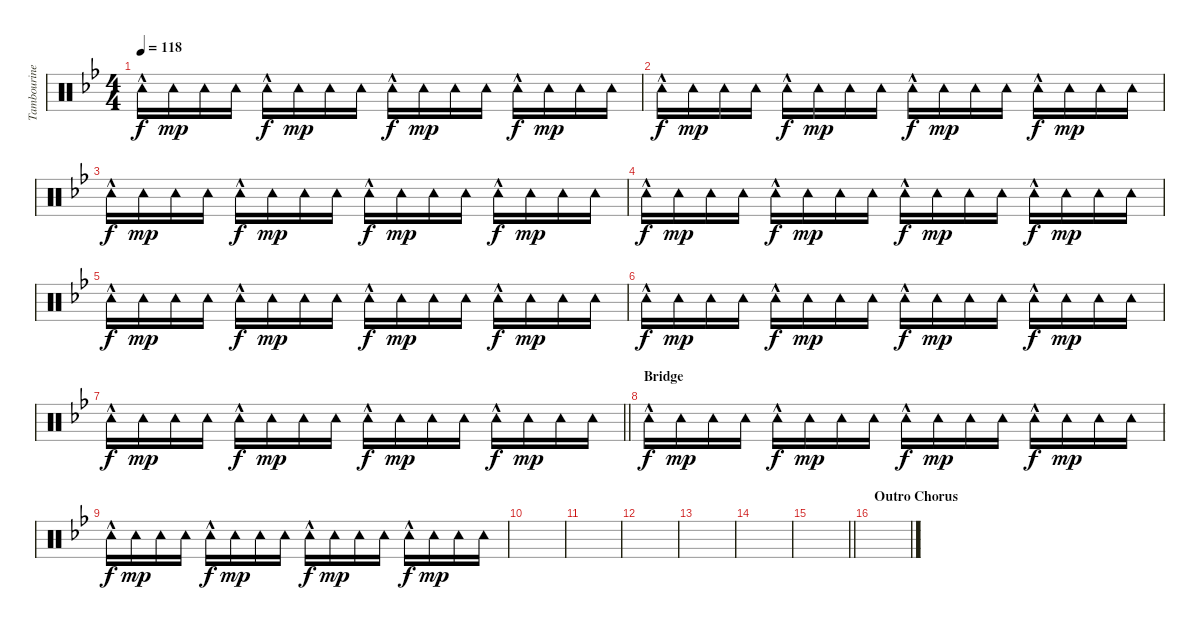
\track ("Tambourine" "Tambourine") {instrument percussion}
\staff {score}
\articulation defaults
\ts (4 4)
\tempo 118
\clef neutral
\ks bb "Tambourine (hit)"{hac}.16{dy f} "Tambourine (hit)".16{dy mp} "Tambourine (hit)".16 "Tambourine (hit)".16 "Tambourine (hit)"{hac}.16{dy f} "Tambourine (hit)".16{dy mp} "Tambourine (hit)".16 "Tambourine (hit)".16 "Tambourine (hit)"{hac}.16{dy f} "Tambourine (hit)".16{dy mp} "Tambourine (hit)".16 "Tambourine (hit)".16 "Tambourine (hit)"{hac}.16{dy f} "Tambourine (hit)".16{dy mp} "Tambourine (hit)".16 "Tambourine (hit)".16
|
"Tambourine (hit)"{hac}.16{dy f} "Tambourine (hit)".16{dy mp} "Tambourine (hit)".16 "Tambourine (hit)".16 "Tambourine (hit)"{hac}.16{dy f} "Tambourine (hit)".16{dy mp} "Tambourine (hit)".16 "Tambourine (hit)".16 "Tambourine (hit)"{hac}.16{dy f} "Tambourine (hit)".16{dy mp} "Tambourine (hit)".16 "Tambourine (hit)".16 "Tambourine (hit)"{hac}.16{dy f} "Tambourine (hit)".16{dy mp} "Tambourine (hit)".16 "Tambourine (hit)".16 |
"Tambourine (hit)"{hac}.16{dy f} "Tambourine (hit)".16{dy mp} "Tambourine (hit)".16 "Tambourine (hit)".16 "Tambourine (hit)"{hac}.16{dy f} "Tambourine (hit)".16{dy mp} "Tambourine (hit)".16 "Tambourine (hit)".16 "Tambourine (hit)"{hac}.16{dy f} "Tambourine (hit)".16{dy mp} "Tambourine (hit)".16 "Tambourine (hit)".16 "Tambourine (hit)"{hac}.16{dy f} "Tambourine (hit)".16{dy mp} "Tambourine (hit)".16 "Tambourine (hit)".16 |
"Tambourine (hit)"{hac}.16{dy f} "Tambourine (hit)".16{dy mp} "Tambourine (hit)".16 "Tambourine (hit)".16 "Tambourine (hit)"{hac}.16{dy f} "Tambourine (hit)".16{dy mp} "Tambourine (hit)".16 "Tambourine (hit)".16 "Tambourine (hit)"{hac}.16{dy f} "Tambourine (hit)".16{dy mp} "Tambourine (hit)".16 "Tambourine (hit)".16 "Tambourine (hit)"{hac}.16{dy f} "Tambourine (hit)".16{dy mp} "Tambourine (hit)".16 "Tambourine (hit)".16 |
"Tambourine (hit)"{hac}.16{dy f} "Tambourine (hit)".16{dy mp} "Tambourine (hit)".16 "Tambourine (hit)".16 "Tambourine (hit)"{hac}.16{dy f} "Tambourine (hit)".16{dy mp} "Tambourine (hit)".16 "Tambourine (hit)".16 "Tambourine (hit)"{hac}.16{dy f} "Tambourine (hit)".16{dy mp} "Tambourine (hit)".16 "Tambourine (hit)".16 "Tambourine (hit)"{hac}.16{dy f} "Tambourine (hit)".16{dy mp} "Tambourine (hit)".16 "Tambourine (hit)".16 |
"Tambourine (hit)"{hac}.16{dy f} "Tambourine (hit)".16{dy mp} "Tambourine (hit)".16 "Tambourine (hit)".16 "Tambourine (hit)"{hac}.16{dy f} "Tambourine (hit)".16{dy mp} "Tambourine (hit)".16 "Tambourine (hit)".16 "Tambourine (hit)"{hac}.16{dy f} "Tambourine (hit)".16{dy mp} "Tambourine (hit)".16 "Tambourine (hit)".16 "Tambourine (hit)"{hac}.16{dy f} "Tambourine (hit)".16{dy mp} "Tambourine (hit)".16 "Tambourine (hit)".16 |
\barLineRight lightlight "Tambourine (hit)"{hac}.16{dy f} "Tambourine (hit)".16{dy mp} "Tambourine (hit)".16 "Tambourine (hit)".16 "Tambourine (hit)"{hac}.16{dy f} "Tambourine (hit)".16{dy mp} "Tambourine (hit)".16 "Tambourine (hit)".16 "Tambourine (hit)"{hac}.16{dy f} "Tambourine (hit)".16{dy mp} "Tambourine (hit)".16 "Tambourine (hit)".16 "Tambourine (hit)"{hac}.16{dy f} "Tambourine (hit)".16{dy mp} "Tambourine (hit)".16 "Tambourine (hit)".16
|
\section ("" "Bridge")
"Tambourine (hit)"{hac}.16{dy f} "Tambourine (hit)".16{dy mp} "Tambourine (hit)".16 "Tambourine (hit)".16 "Tambourine (hit)"{hac}.16{dy f} "Tambourine (hit)".16{dy mp} "Tambourine (hit)".16 "Tambourine (hit)".16 "Tambourine (hit)"{hac}.16{dy f} "Tambourine (hit)".16{dy mp} "Tambourine (hit)".16 "Tambourine (hit)".16 "Tambourine (hit)"{hac}.16{dy f} "Tambourine (hit)".16{dy mp} "Tambourine (hit)".16 "Tambourine (hit)".16 |
"Tambourine (hit)"{hac}.16{dy f} "Tambourine (hit)".16{dy mp} "Tambourine (hit)".16 "Tambourine (hit)".16 "Tambourine (hit)"{hac}.16{dy f} "Tambourine (hit)".16{dy mp} "Tambourine (hit)".16 "Tambourine (hit)".16 "Tambourine (hit)"{hac}.16{dy f} "Tambourine (hit)".16{dy mp} "Tambourine (hit)".16 "Tambourine (hit)".16 "Tambourine (hit)"{hac}.16{dy f} "Tambourine (hit)".16{dy mp} "Tambourine (hit)".16 "Tambourine (hit)".16 |
|
|
|
|
|
\barLineRight lightlight
|
\section ("" "Outro Chorus")
